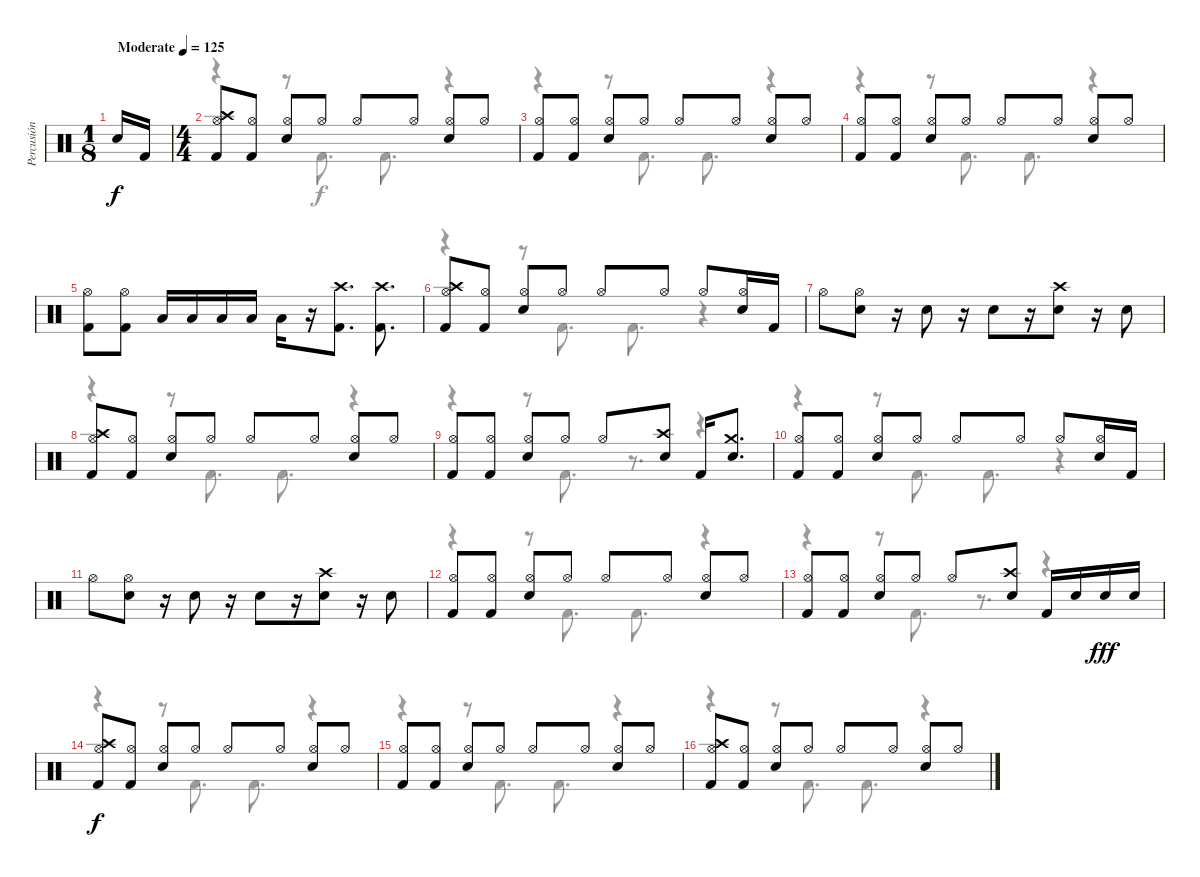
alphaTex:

\track ("Percusión" "Percusión") {instrument percussion}
\staff {score}
\articulation defaults
\voice
\ts (1 8)
\tempo (125 "Moderate")
\clef neutral
\ks c "Electric Snare (hit)".16{dy f} "Kick (hit) 2".16
|
\ts (4 4)
("Hi-Hat (open)" "Kick (hit) 2" "Crash high (hit)").8 ("Hi-Hat (open)" "Kick (hit) 2").8 ("Hi-Hat (open)" "Electric Snare (hit)").8 "Hi-Hat (open)".8 "Hi-Hat (open)".8 "Hi-Hat (open)".8 ("Hi-Hat (open)" "Electric Snare (hit)").8 "Hi-Hat (open)".8 |
("Hi-Hat (open)" "Kick (hit) 2").8 ("Hi-Hat (open)" "Kick (hit) 2").8 ("Hi-Hat (open)" "Electric Snare (hit)").8 "Hi-Hat (open)".8 "Hi-Hat (open)".8 "Hi-Hat (open)".8 ("Hi-Hat (open)" "Electric Snare (hit)").8 "Hi-Hat (open)".8 |
("Hi-Hat (open)" "Kick (hit) 2").8 ("Hi-Hat (open)" "Kick (hit) 2").8 ("Hi-Hat (open)" "Electric Snare (hit)").8 "Hi-Hat (open)".8 "Hi-Hat (open)".8 "Hi-Hat (open)".8 ("Hi-Hat (open)" "Electric Snare (hit)").8 "Hi-Hat (open)".8 |
("Hi-Hat (open)" "Kick (hit) 2").8 ("Hi-Hat (open)" "Kick (hit) 2").8 "Low Tom (hit)".16 "Low Tom (hit)".16 "Low Floor Tom (hit)".16 "Low Tom (hit)".16 "Low Tom (hit)".16 r.16 ("Crash high (hit)" "Kick (hit) 2").8{d} ("Crash high (hit)" "Kick (hit) 2").8{d} |
("Hi-Hat (open)" "Kick (hit) 2" "Crash high (hit)").8 ("Hi-Hat (open)" "Kick (hit) 2").8 ("Hi-Hat (open)" "Electric Snare (hit)").8 "Hi-Hat (open)".8 "Hi-Hat (open)".8 "Hi-Hat (open)".8 "Hi-Hat (open)".8 ("Hi-Hat (open)" "Electric Snare (hit)").16 "Kick (hit) 2".16 |
"Hi-Hat (open)".8 ("Hi-Hat (open)" "Electric Snare (hit)").8 r.16 "Electric Snare (hit)".8 r.16 "Electric Snare (hit)".8 r.16 ("Crash high (hit)" "Electric Snare (hit)").8 r.16 "Electric Snare (hit)".8 |
("Hi-Hat (open)" "Kick (hit) 2" "Crash high (hit)").8 ("Hi-Hat (open)" "Kick (hit) 2").8 ("Hi-Hat (open)" "Electric Snare (hit)").8 "Hi-Hat (open)".8 "Hi-Hat (open)".8 "Hi-Hat (open)".8 ("Hi-Hat (open)" "Electric Snare (hit)").8 "Hi-Hat (open)".8 |
("Hi-Hat (open)" "Kick (hit) 2").8 ("Hi-Hat (open)" "Kick (hit) 2").8 ("Hi-Hat (open)" "Electric Snare (hit)").8 "Hi-Hat (open)".8 "Hi-Hat (open)".8 ("Crash high (hit)" "Electric Snare (hit)").8 "Kick (hit) 2".16 ("Crash medium (hit)" "Electric Snare (hit)").8{d} |
("Hi-Hat (open)" "Kick (hit) 2").8 ("Hi-Hat (open)" "Kick (hit) 2").8 ("Hi-Hat (open)" "Electric Snare (hit)").8 "Hi-Hat (open)".8 "Hi-Hat (open)".8 "Hi-Hat (open)".8 "Hi-Hat (open)".8 ("Hi-Hat (open)" "Electric Snare (hit)").16 "Kick (hit) 2".16 |
"Hi-Hat (open)".8 ("Hi-Hat (open)" "Electric Snare (hit)").8 r.16 "Electric Snare (hit)".8 r.16 "Electric Snare (hit)".8 r.16 ("Crash high (hit)" "Electric Snare (hit)").8 r.16 "Electric Snare (hit)".8 |
("Hi-Hat (open)" "Kick (hit) 2").8 ("Hi-Hat (open)" "Kick (hit) 2").8 ("Hi-Hat (open)" "Electric Snare (hit)").8 "Hi-Hat (open)".8 "Hi-Hat (open)".8 "Hi-Hat (open)".8 ("Hi-Hat (open)" "Electric Snare (hit)").8 "Hi-Hat (open)".8 |
("Hi-Hat (open)" "Kick (hit) 2").8 ("Hi-Hat (open)" "Kick (hit) 2").8 ("Hi-Hat (open)" "Electric Snare (hit)").8 "Hi-Hat (open)".8 "Hi-Hat (open)".8 ("Crash high (hit)" "Electric Snare (hit)").8 "Kick (hit) 2".16 "Electric Snare (hit)".16 "Electric Snare (hit)".16{dy fff} "Electric Snare (hit)".16 |
("Hi-Hat (open)" "Kick (hit) 2" "Crash high (hit)").8{dy f} ("Hi-Hat (open)" "Kick (hit) 2").8 ("Hi-Hat (open)" "Electric Snare (hit)").8 "Hi-Hat (open)".8 "Hi-Hat (open)".8 "Hi-Hat (open)".8 ("Hi-Hat (open)" "Electric Snare (hit)").8 "Hi-Hat (open)".8 |
("Hi-Hat (open)" "Kick (hit) 2").8 ("Hi-Hat (open)" "Kick (hit) 2").8 ("Hi-Hat (open)" "Electric Snare (hit)").8 "Hi-Hat (open)".8 "Hi-Hat (open)".8 "Hi-Hat (open)".8 ("Hi-Hat (open)" "Electric Snare (hit)").8 "Hi-Hat (open)".8 |
("Hi-Hat (open)" "Kick (hit) 2" "Crash high (hit)").8 ("Hi-Hat (open)" "Kick (hit) 2").8 ("Hi-Hat (open)" "Electric Snare (hit)").8 "Hi-Hat (open)".8 "Hi-Hat (open)".8 "Hi-Hat (open)".8 ("Hi-Hat (open)" "Electric Snare (hit)").8 "Hi-Hat (open)".8
\voice
\clef neutral
\ottava regular
\simile none
\ks c
|
r.4 r.8 "Kick (hit) 2".8{d} "Kick (hit) 2".8{d} r.4 |
r.4 r.8 "Kick (hit) 2".8{d} "Kick (hit) 2".8{d} r.4 |
r.4 r.8 "Kick (hit) 2".8{d} "Kick (hit) 2".8{d} r.4 |
|
r.4 r.8 "Kick (hit) 2".8{d} "Kick (hit) 2".8{d} r.4 |
|
r.4 r.8 "Kick (hit) 2".8{d} "Kick (hit) 2".8{d} r.4 |
r.4 r.8 "Kick (hit) 2".8{d} r.8{d} r.4 |
r.4 r.8 "Kick (hit) 2".8{d} "Kick (hit) 2".8{d} r.4 |
|
r.4 r.8 "Kick (hit) 2".8{d} "Kick (hit) 2".8{d} r.4 |
r.4 r.8 "Kick (hit) 2".8{d} r.8{d} r.4 |
r.4 r.8 "Kick (hit) 2".8{d} "Kick (hit) 2".8{d} r.4 |
r.4 r.8 "Kick (hit) 2".8{d} "Kick (hit) 2".8{d} r.4 |
r.4 r.8 "Kick (hit) 2".8{d} "Kick (hit) 2".8{d} r.4
